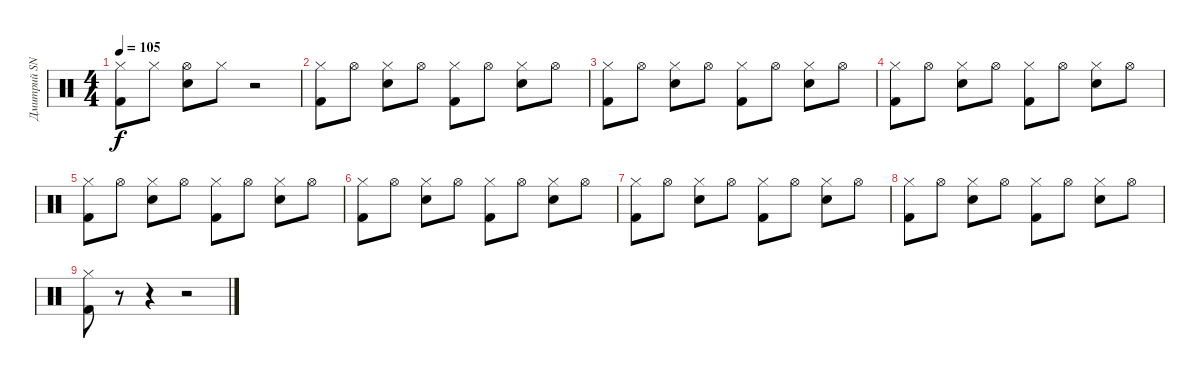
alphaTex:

\track ("Дмитрий SNAKE Хакимов" "Дмитрий SN") {instrument percussion}
\staff {score}
\articulation defaults
\ts (4 4)
\tempo 105
\clef neutral
\ks c
("Hi-Hat (closed)" "Kick (hit) 2").8{dy f} "Hi-Hat (closed)".8 ("Hi-Hat (open)" "Snare (hit) 2").8 "Hi-Hat (closed)".8 r.2 |
("Hi-Hat (closed)" "Kick (hit) 2").8 "Hi-Hat (open)".8 ("Hi-Hat (closed)" "Snare (hit) 2").8 "Hi-Hat (open)".8 ("Hi-Hat (closed)" "Kick (hit) 2").8 "Hi-Hat (open)".8 ("Hi-Hat (closed)" "Snare (hit) 2").8 "Hi-Hat (open)".8 |
("Hi-Hat (closed)" "Kick (hit) 2").8 "Hi-Hat (open)".8 ("Hi-Hat (closed)" "Snare (hit) 2").8 "Hi-Hat (open)".8 ("Hi-Hat (closed)" "Kick (hit) 2").8 "Hi-Hat (open)".8 ("Hi-Hat (closed)" "Snare (hit) 2").8 "Hi-Hat (open)".8 |
("Hi-Hat (closed)" "Kick (hit) 2").8 "Hi-Hat (open)".8 ("Hi-Hat (closed)" "Snare (hit) 2").8 "Hi-Hat (open)".8 ("Hi-Hat (closed)" "Kick (hit) 2").8 "Hi-Hat (open)".8 ("Hi-Hat (closed)" "Snare (hit) 2").8 "Hi-Hat (open)".8 |
("Hi-Hat (closed)" "Kick (hit) 2").8 "Hi-Hat (open)".8 ("Hi-Hat (closed)" "Snare (hit) 2").8 "Hi-Hat (open)".8 ("Hi-Hat (closed)" "Kick (hit) 2").8 "Hi-Hat (open)".8 ("Hi-Hat (closed)" "Snare (hit) 2").8 "Hi-Hat (open)".8 |
("Hi-Hat (closed)" "Kick (hit) 2").8 "Hi-Hat (open)".8 ("Hi-Hat (closed)" "Snare (hit) 2").8 "Hi-Hat (open)".8 ("Hi-Hat (closed)" "Kick (hit) 2").8 "Hi-Hat (open)".8 ("Hi-Hat (closed)" "Snare (hit) 2").8 "Hi-Hat (open)".8 |
("Hi-Hat (closed)" "Kick (hit) 2").8 "Hi-Hat (open)".8 ("Hi-Hat (closed)" "Snare (hit) 2").8 "Hi-Hat (open)".8 ("Hi-Hat (closed)" "Kick (hit) 2").8 "Hi-Hat (open)".8 ("Hi-Hat (closed)" "Snare (hit) 2").8 "Hi-Hat (open)".8 |
("Hi-Hat (closed)" "Kick (hit) 2").8 "Hi-Hat (open)".8 ("Hi-Hat (closed)" "Snare (hit) 2").8 "Hi-Hat (open)".8 ("Hi-Hat (closed)" "Kick (hit) 2").8 "Hi-Hat (open)".8 ("Hi-Hat (closed)" "Snare (hit) 2").8 "Hi-Hat (open)".8 |
("Hi-Hat (closed)" "Kick (hit) 2").8 r.8 r.4 r.2
